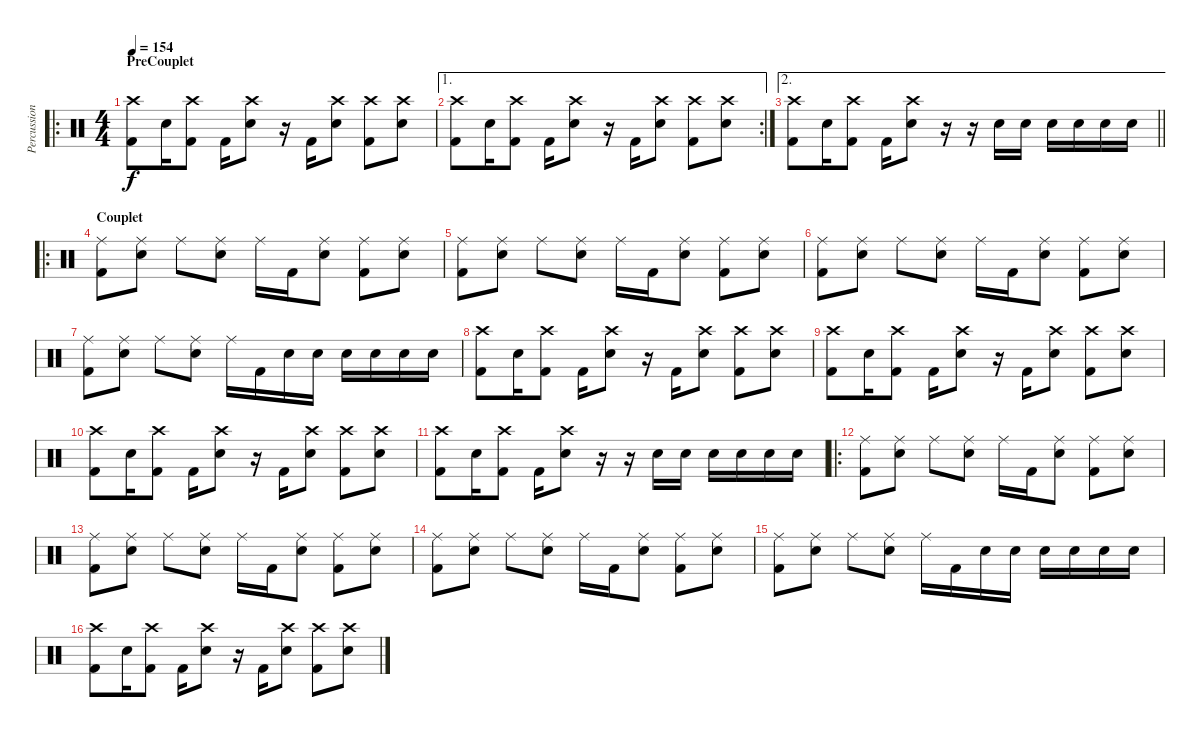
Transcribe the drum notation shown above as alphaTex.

\track ("Percussion" "Percussion") {instrument percussion}
\staff {score}
\articulation defaults
\ro
\ts (4 4)
\section ("" "PreCouplet")
\tempo 154
\clef neutral
\ks c
("Crash high (hit)" "Kick (hit) 2").8{dy f} "Snare (hit) 2".16 ("Crash high (hit)" "Kick (hit) 2").8 "Kick (hit) 2".16 ("Crash high (hit)" "Snare (hit) 2").8 r.16 "Kick (hit) 2".16 ("Crash high (hit)" "Snare (hit) 2").8 ("Crash high (hit)" "Kick (hit) 2").8 ("Crash high (hit)" "Snare (hit) 2").8 |
\ae 1
\rc 2
("Crash high (hit)" "Kick (hit) 2").8 "Snare (hit) 2".16 ("Crash high (hit)" "Kick (hit) 2").8 "Kick (hit) 2".16 ("Crash high (hit)" "Snare (hit) 2").8 r.16 "Kick (hit) 2".16 ("Crash high (hit)" "Snare (hit) 2").8 ("Crash high (hit)" "Kick (hit) 2").8 ("Crash high (hit)" "Snare (hit) 2").8 |
\ae 2
\barLineRight lightlight
("Crash high (hit)" "Kick (hit) 2").8 "Snare (hit) 2".16 ("Crash high (hit)" "Kick (hit) 2").8 "Kick (hit) 2".16 ("Crash high (hit)" "Snare (hit) 2").8 r.16 r.16 "Snare (hit) 2".16 "Snare (hit) 2".16 "Snare (hit) 2".16 "Snare (hit) 2".16 "Snare (hit) 2".16 "Snare (hit) 2".16 |
\ro
\section ("" "Couplet")
("Ride (middle)" "Kick (hit) 2").8 ("Ride (middle)" "Snare (hit) 2").8 "Ride (middle)".8 ("Ride (middle)" "Snare (hit) 2").8 "Ride (middle)".16 "Kick (hit) 2".16 ("Ride (middle)" "Snare (hit) 2").8 ("Ride (middle)" "Kick (hit) 2").8 ("Ride (middle)" "Snare (hit) 2").8 |
("Ride (middle)" "Kick (hit) 2").8 ("Ride (middle)" "Snare (hit) 2").8 "Ride (middle)".8 ("Ride (middle)" "Snare (hit) 2").8 "Ride (middle)".16 "Kick (hit) 2".16 ("Ride (middle)" "Snare (hit) 2").8 ("Ride (middle)" "Kick (hit) 2").8 ("Ride (middle)" "Snare (hit) 2").8 |
("Ride (middle)" "Kick (hit) 2").8 ("Ride (middle)" "Snare (hit) 2").8 "Ride (middle)".8 ("Ride (middle)" "Snare (hit) 2").8 "Ride (middle)".16 "Kick (hit) 2".16 ("Ride (middle)" "Snare (hit) 2").8 ("Ride (middle)" "Kick (hit) 2").8 ("Ride (middle)" "Snare (hit) 2").8 |
("Ride (middle)" "Kick (hit) 2").8 ("Ride (middle)" "Snare (hit) 2").8 "Ride (middle)".8 ("Ride (middle)" "Snare (hit) 2").8 "Ride (middle)".16 "Kick (hit) 2".16 "Snare (hit) 2".16 "Snare (hit) 2".16 "Snare (hit) 2".16 "Snare (hit) 2".16 "Snare (hit) 2".16 "Snare (hit) 2".16 |
("Crash high (hit)" "Kick (hit) 2").8 "Snare (hit) 2".16 ("Crash high (hit)" "Kick (hit) 2").8 "Kick (hit) 2".16 ("Crash high (hit)" "Snare (hit) 2").8 r.16 "Kick (hit) 2".16 ("Crash high (hit)" "Snare (hit) 2").8 ("Crash high (hit)" "Kick (hit) 2").8 ("Crash high (hit)" "Snare (hit) 2").8 |
("Crash high (hit)" "Kick (hit) 2").8 "Snare (hit) 2".16 ("Crash high (hit)" "Kick (hit) 2").8 "Kick (hit) 2".16 ("Crash high (hit)" "Snare (hit) 2").8 r.16 "Kick (hit) 2".16 ("Crash high (hit)" "Snare (hit) 2").8 ("Crash high (hit)" "Kick (hit) 2").8 ("Crash high (hit)" "Snare (hit) 2").8 |
("Crash high (hit)" "Kick (hit) 2").8 "Snare (hit) 2".16 ("Crash high (hit)" "Kick (hit) 2").8 "Kick (hit) 2".16 ("Crash high (hit)" "Snare (hit) 2").8 r.16 "Kick (hit) 2".16 ("Crash high (hit)" "Snare (hit) 2").8 ("Crash high (hit)" "Kick (hit) 2").8 ("Crash high (hit)" "Snare (hit) 2").8 |
("Crash high (hit)" "Kick (hit) 2").8 "Snare (hit) 2".16 ("Crash high (hit)" "Kick (hit) 2").8 "Kick (hit) 2".16 ("Crash high (hit)" "Snare (hit) 2").8 r.16 r.16 "Snare (hit) 2".16 "Snare (hit) 2".16 "Snare (hit) 2".16 "Snare (hit) 2".16 "Snare (hit) 2".16 "Snare (hit) 2".16 |
\ro
("Ride (middle)" "Kick (hit) 2").8 ("Ride (middle)" "Snare (hit) 2").8 "Ride (middle)".8 ("Ride (middle)" "Snare (hit) 2").8 "Ride (middle)".16 "Kick (hit) 2".16 ("Ride (middle)" "Snare (hit) 2").8 ("Ride (middle)" "Kick (hit) 2").8 ("Ride (middle)" "Snare (hit) 2").8 |
("Ride (middle)" "Kick (hit) 2").8 ("Ride (middle)" "Snare (hit) 2").8 "Ride (middle)".8 ("Ride (middle)" "Snare (hit) 2").8 "Ride (middle)".16 "Kick (hit) 2".16 ("Ride (middle)" "Snare (hit) 2").8 ("Ride (middle)" "Kick (hit) 2").8 ("Ride (middle)" "Snare (hit) 2").8 |
("Ride (middle)" "Kick (hit) 2").8 ("Ride (middle)" "Snare (hit) 2").8 "Ride (middle)".8 ("Ride (middle)" "Snare (hit) 2").8 "Ride (middle)".16 "Kick (hit) 2".16 ("Ride (middle)" "Snare (hit) 2").8 ("Ride (middle)" "Kick (hit) 2").8 ("Ride (middle)" "Snare (hit) 2").8 |
("Ride (middle)" "Kick (hit) 2").8 ("Ride (middle)" "Snare (hit) 2").8 "Ride (middle)".8 ("Ride (middle)" "Snare (hit) 2").8 "Ride (middle)".16 "Kick (hit) 2".16 "Snare (hit) 2".16 "Snare (hit) 2".16 "Snare (hit) 2".16 "Snare (hit) 2".16 "Snare (hit) 2".16 "Snare (hit) 2".16 |
("Crash high (hit)" "Kick (hit) 2").8 "Snare (hit) 2".16 ("Crash high (hit)" "Kick (hit) 2").8 "Kick (hit) 2".16 ("Crash high (hit)" "Snare (hit) 2").8 r.16 "Kick (hit) 2".16 ("Crash high (hit)" "Snare (hit) 2").8 ("Crash high (hit)" "Kick (hit) 2").8 ("Crash high (hit)" "Snare (hit) 2").8
